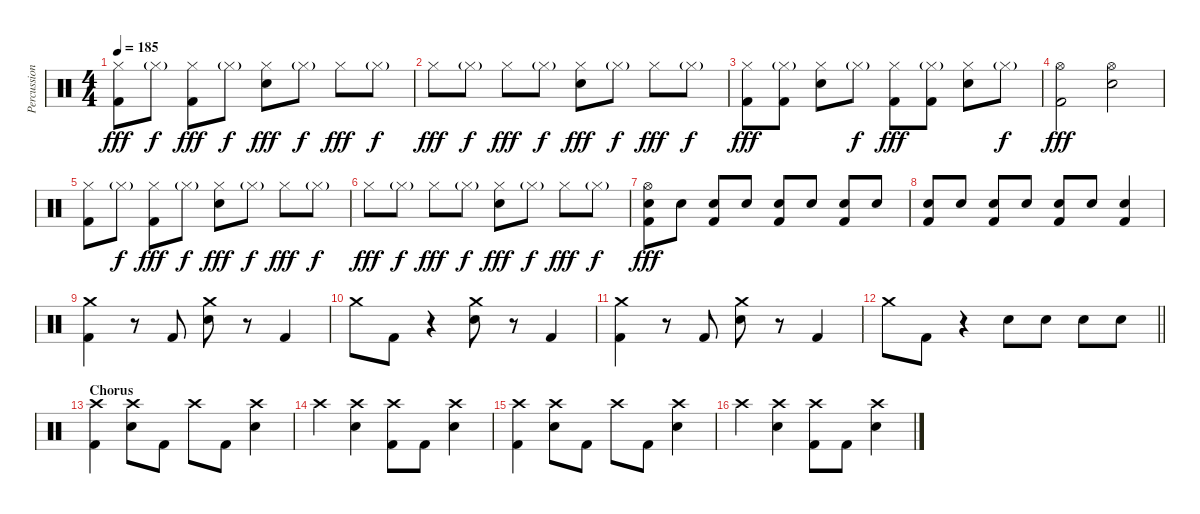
\track ("Percussion" "Percussion") {instrument percussion}
\staff {score}
\articulation defaults
\ts (4 4)
\tempo 185
\clef neutral
\ks c
("Hi-Hat (closed)" "Kick (hit) 2").8{dy fff} "Hi-Hat (closed)"{g}.8{dy f} ("Hi-Hat (closed)" "Kick (hit) 2").8{dy fff} "Hi-Hat (closed)"{g}.8{dy f} ("Hi-Hat (closed)" "Snare (hit) 2").8{dy fff} "Hi-Hat (closed)"{g}.8{dy f} "Hi-Hat (closed)".8{dy fff} "Hi-Hat (closed)"{g}.8{dy f} |
"Hi-Hat (closed)".8{dy fff} "Hi-Hat (closed)"{g}.8{dy f} "Hi-Hat (closed)".8{dy fff} "Hi-Hat (closed)"{g}.8{dy f} ("Hi-Hat (closed)" "Snare (hit) 2").8{dy fff} "Hi-Hat (closed)"{g}.8{dy f} "Hi-Hat (closed)".8{dy fff} "Hi-Hat (closed)"{g}.8{dy f} |
("Hi-Hat (closed)" "Kick (hit) 2").8{dy fff} ("Hi-Hat (closed)"{g} "Kick (hit) 2").8 ("Hi-Hat (closed)" "Snare (hit) 2").8 "Hi-Hat (closed)"{g}.8{dy f} ("Hi-Hat (closed)" "Kick (hit) 2").8{dy fff} ("Hi-Hat (closed)"{g} "Kick (hit) 2").8 ("Hi-Hat (closed)" "Snare (hit) 2").8 "Hi-Hat (closed)"{g}.8{dy f} |
("Hi-Hat (open)" "Kick (hit) 2").2{dy fff} ("Hi-Hat (open)" "Snare (hit) 2").2 |
("Hi-Hat (closed)" "Kick (hit) 2").8 "Hi-Hat (closed)"{g}.8{dy f} ("Hi-Hat (closed)" "Kick (hit) 2").8{dy fff} "Hi-Hat (closed)"{g}.8{dy f} ("Hi-Hat (closed)" "Snare (hit) 2").8{dy fff} "Hi-Hat (closed)"{g}.8{dy f} "Hi-Hat (closed)".8{dy fff} "Hi-Hat (closed)"{g}.8{dy f} |
"Hi-Hat (closed)".8{dy fff} "Hi-Hat (closed)"{g}.8{dy f} "Hi-Hat (closed)".8{dy fff} "Hi-Hat (closed)"{g}.8{dy f} ("Hi-Hat (closed)" "Snare (hit) 2").8{dy fff} "Hi-Hat (closed)"{g}.8{dy f} "Hi-Hat (closed)".8{dy fff} "Hi-Hat (closed)"{g}.8{dy f} |
("Hi-Hat (open)" "Snare (hit) 2" "Kick (hit) 2").8{dy fff} "Snare (hit) 2".8{volume 6} ("Snare (hit) 2" "Kick (hit) 2").8{volume 16} "Snare (hit) 2".8 ("Snare (hit) 2" "Kick (hit) 2").8 "Snare (hit) 2".8 ("Snare (hit) 2" "Kick (hit) 2").8 "Snare (hit) 2".8 |
("Snare (hit) 2" "Kick (hit) 2").8 "Snare (hit) 2".8 ("Snare (hit) 2" "Kick (hit) 2").8 "Snare (hit) 2".8 ("Snare (hit) 2" "Kick (hit) 2").8 "Snare (hit) 2".8 ("Snare (hit) 2" "Kick (hit) 2").4 |
("Crash medium (hit)" "Kick (hit) 2").4 r.8 "Kick (hit) 2".8 ("Crash medium (hit)" "Snare (hit) 2").8 r.8 "Kick (hit) 2".4 |
"Crash medium (hit)".8 "Kick (hit) 2".8 r.4 ("Crash medium (hit)" "Snare (hit) 2").8 r.8 "Kick (hit) 2".4 |
("Crash medium (hit)" "Kick (hit) 2").4 r.8 "Kick (hit) 2".8 ("Crash medium (hit)" "Snare (hit) 2").8 r.8 "Kick (hit) 2".4 |
\barLineRight lightlight "Crash medium (hit)".8 "Kick (hit) 2".8
r.4 "Snare (hit) 2".8 "Snare (hit) 2".8 "Snare (hit) 2".8 "Snare (hit) 2".8 |
\section ("" "Chorus")
("Crash high (hit)" "Kick (hit) 2").4 ("Crash high (hit)" "Snare (hit) 2").8 "Kick (hit) 2".8 "Crash high (hit)".8 "Kick (hit) 2".8 ("Crash high (hit)" "Snare (hit) 2").4 |
"Crash high (hit)".4 ("Crash high (hit)" "Snare (hit) 2").4 ("Crash high (hit)" "Kick (hit) 2").8 "Kick (hit) 2".8 ("Crash high (hit)" "Snare (hit) 2").4 |
("Crash high (hit)" "Kick (hit) 2").4 ("Crash high (hit)" "Snare (hit) 2").8 "Kick (hit) 2".8 "Crash high (hit)".8 "Kick (hit) 2".8 ("Crash high (hit)" "Snare (hit) 2").4 |
"Crash high (hit)".4 ("Crash high (hit)" "Snare (hit) 2").4 ("Crash high (hit)" "Kick (hit) 2").8 "Kick (hit) 2".8 ("Crash high (hit)" "Snare (hit) 2").4
